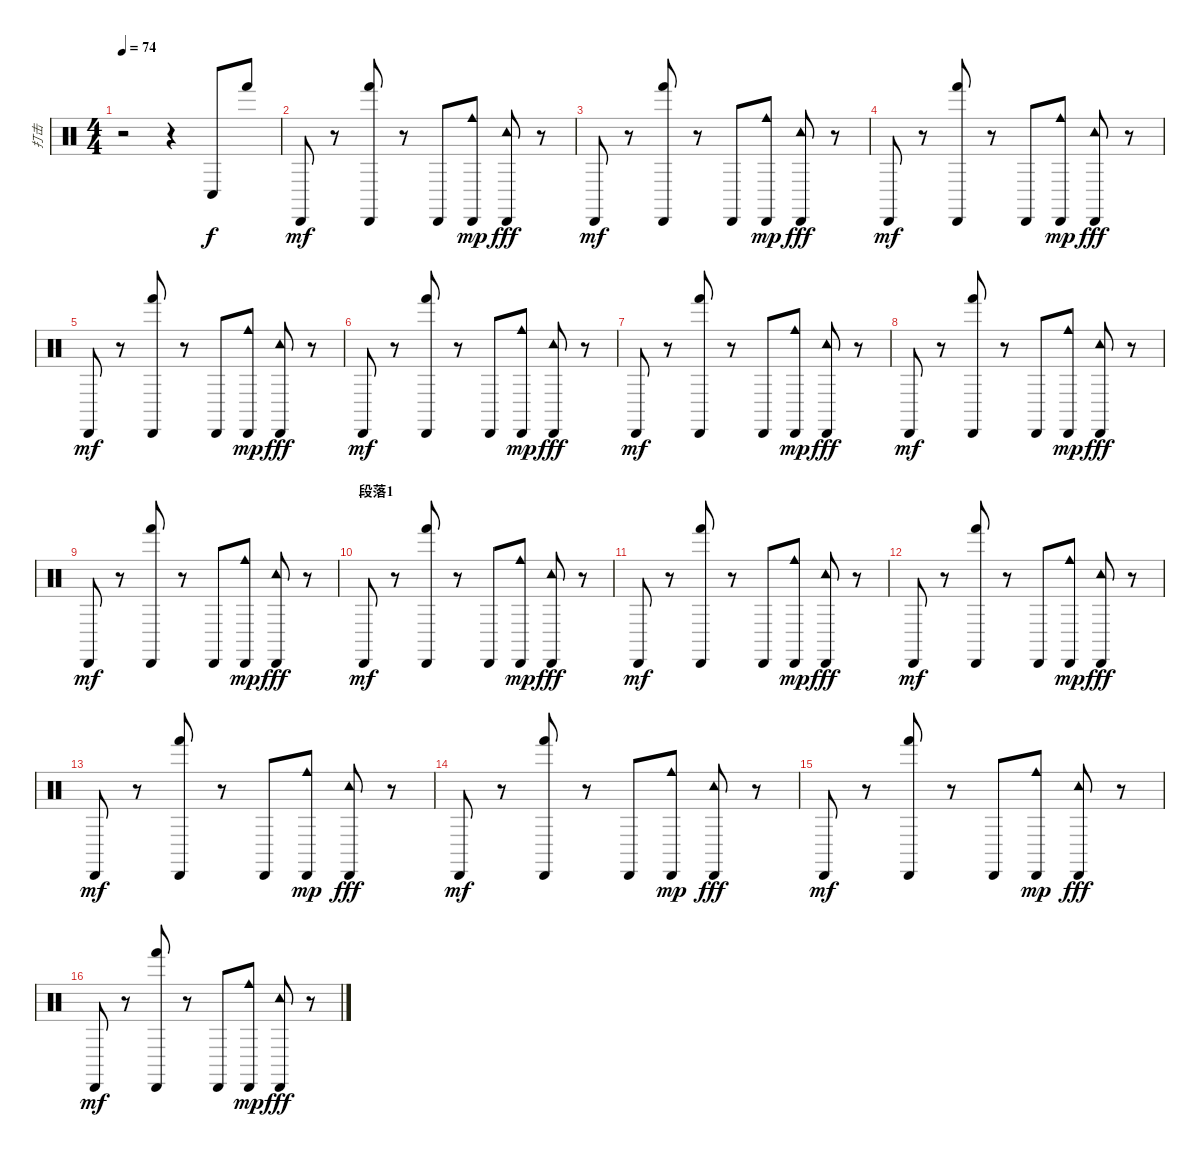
\track ("打击" "打击") {instrument percussion}
\staff {score}
\articulation defaults
\ts (4 4)
\tempo 74
\clef neutral
\ks c
r.2{dy f} r.4 "Conga low (hit)".8 "Hand (hit)".8 |
"Cabasa (hit)".8{dy mf} r.8 ("Cabasa (hit)" "Hand (hit)").8 r.8 "Cabasa (hit)".8 ("Cabasa (hit)" "Cowbell medium (hit)").8{dy mp} ("Cabasa (hit)" "Tambourine (hit)").8{dy fff} r.8 |
"Cabasa (hit)".8{dy mf} r.8 ("Cabasa (hit)" "Hand (hit)").8 r.8 "Cabasa (hit)".8 ("Cabasa (hit)" "Cowbell medium (hit)").8{dy mp} ("Cabasa (hit)" "Tambourine (hit)").8{dy fff} r.8 |
"Cabasa (hit)".8{dy mf} r.8 ("Cabasa (hit)" "Hand (hit)").8 r.8 "Cabasa (hit)".8 ("Cabasa (hit)" "Cowbell medium (hit)").8{dy mp} ("Cabasa (hit)" "Tambourine (hit)").8{dy fff} r.8 |
"Cabasa (hit)".8{dy mf} r.8 ("Cabasa (hit)" "Hand (hit)").8 r.8 "Cabasa (hit)".8 ("Cabasa (hit)" "Cowbell medium (hit)").8{dy mp} ("Cabasa (hit)" "Tambourine (hit)").8{dy fff} r.8 |
"Cabasa (hit)".8{dy mf} r.8 ("Cabasa (hit)" "Hand (hit)").8 r.8 "Cabasa (hit)".8 ("Cabasa (hit)" "Cowbell medium (hit)").8{dy mp} ("Cabasa (hit)" "Tambourine (hit)").8{dy fff} r.8 |
"Cabasa (hit)".8{dy mf} r.8 ("Cabasa (hit)" "Hand (hit)").8 r.8 "Cabasa (hit)".8 ("Cabasa (hit)" "Cowbell medium (hit)").8{dy mp} ("Cabasa (hit)" "Tambourine (hit)").8{dy fff} r.8 |
"Cabasa (hit)".8{dy mf} r.8 ("Cabasa (hit)" "Hand (hit)").8 r.8 "Cabasa (hit)".8 ("Cabasa (hit)" "Cowbell medium (hit)").8{dy mp} ("Cabasa (hit)" "Tambourine (hit)").8{dy fff} r.8 |
"Cabasa (hit)".8{dy mf} r.8 ("Cabasa (hit)" "Hand (hit)").8 r.8 "Cabasa (hit)".8 ("Cabasa (hit)" "Cowbell medium (hit)").8{dy mp} ("Cabasa (hit)" "Tambourine (hit)").8{dy fff} r.8 |
\section ("" "段落1")
"Cabasa (hit)".8{dy mf} r.8 ("Cabasa (hit)" "Hand (hit)").8 r.8 "Cabasa (hit)".8 ("Cabasa (hit)" "Cowbell medium (hit)").8{dy mp} ("Cabasa (hit)" "Tambourine (hit)").8{dy fff} r.8 |
"Cabasa (hit)".8{dy mf} r.8 ("Cabasa (hit)" "Hand (hit)").8 r.8 "Cabasa (hit)".8 ("Cabasa (hit)" "Cowbell medium (hit)").8{dy mp} ("Cabasa (hit)" "Tambourine (hit)").8{dy fff} r.8 |
"Cabasa (hit)".8{dy mf} r.8 ("Cabasa (hit)" "Hand (hit)").8 r.8 "Cabasa (hit)".8 ("Cabasa (hit)" "Cowbell medium (hit)").8{dy mp} ("Cabasa (hit)" "Tambourine (hit)").8{dy fff} r.8 |
"Cabasa (hit)".8{dy mf} r.8 ("Cabasa (hit)" "Hand (hit)").8 r.8 "Cabasa (hit)".8 ("Cabasa (hit)" "Cowbell medium (hit)").8{dy mp} ("Cabasa (hit)" "Tambourine (hit)").8{dy fff} r.8 |
"Cabasa (hit)".8{dy mf} r.8 ("Cabasa (hit)" "Hand (hit)").8 r.8 "Cabasa (hit)".8 ("Cabasa (hit)" "Cowbell medium (hit)").8{dy mp} ("Cabasa (hit)" "Tambourine (hit)").8{dy fff} r.8 |
"Cabasa (hit)".8{dy mf} r.8 ("Cabasa (hit)" "Hand (hit)").8 r.8 "Cabasa (hit)".8 ("Cabasa (hit)" "Cowbell medium (hit)").8{dy mp} ("Cabasa (hit)" "Tambourine (hit)").8{dy fff} r.8 |
"Cabasa (hit)".8{dy mf} r.8 ("Cabasa (hit)" "Hand (hit)").8 r.8 "Cabasa (hit)".8 ("Cabasa (hit)" "Cowbell medium (hit)").8{dy mp} ("Cabasa (hit)" "Tambourine (hit)").8{dy fff} r.8
